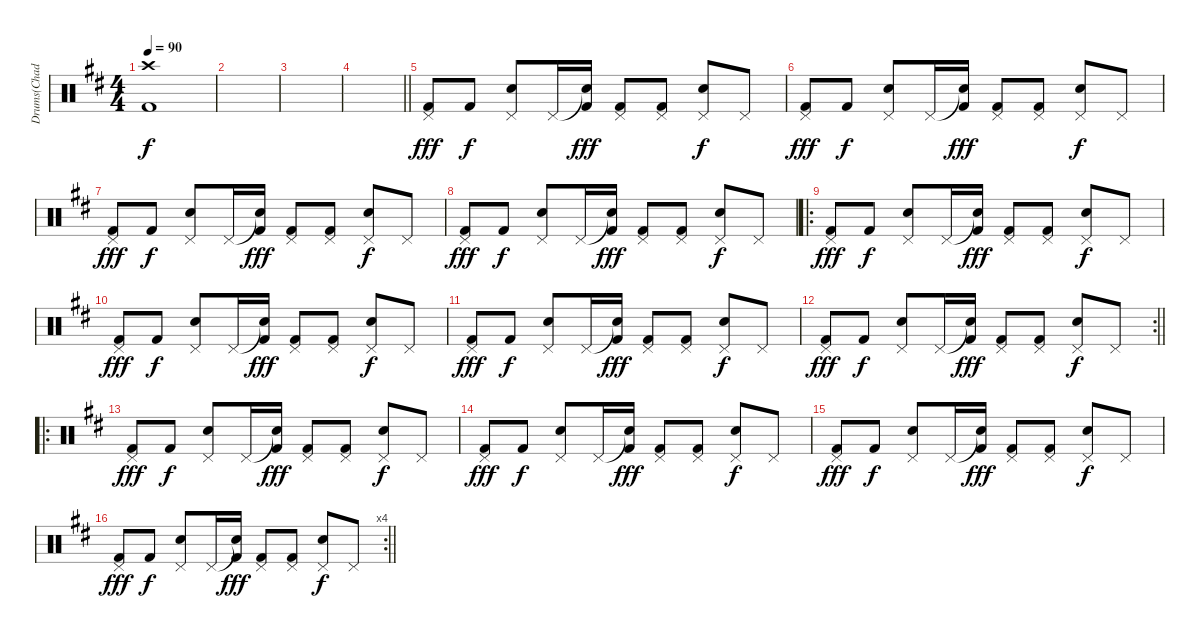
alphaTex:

\track ("Drums(Chad Smith)" "Drums(Chad") {instrument percussion}
\staff {score}
\articulation defaults
\ts (4 4)
\tempo 90
\clef neutral
\ks d
("Kick (hit) 2" "Crash high (hit)").1{dy f} |
|
|
\barLineRight lightlight
|
("Pedal Hi-Hat (hit)" "Kick (hit) 2").8{dy fff} "Kick (hit) 2".8{dy f} ("Pedal Hi-Hat (hit)" "Snare (hit) 2").8 "Pedal Hi-Hat (hit)".16 ("Snare (hit)"{t} "Kick (hit) 2").16{dy fff} ("Pedal Hi-Hat (hit)" "Kick (hit) 2").8 ("Pedal Hi-Hat (hit)" "Kick (hit) 2").8 ("Pedal Hi-Hat (hit)" "Snare (hit) 2").8{dy f} "Pedal Hi-Hat (hit)".8 |
("Pedal Hi-Hat (hit)" "Kick (hit) 2").8{dy fff} "Kick (hit) 2".8{dy f} ("Pedal Hi-Hat (hit)" "Snare (hit) 2").8 "Pedal Hi-Hat (hit)".16 ("Snare (hit)"{t} "Kick (hit) 2").16{dy fff} ("Pedal Hi-Hat (hit)" "Kick (hit) 2").8 ("Pedal Hi-Hat (hit)" "Kick (hit) 2").8 ("Pedal Hi-Hat (hit)" "Snare (hit) 2").8{dy f} "Pedal Hi-Hat (hit)".8 |
("Pedal Hi-Hat (hit)" "Kick (hit) 2").8{dy fff} "Kick (hit) 2".8{dy f} ("Pedal Hi-Hat (hit)" "Snare (hit) 2").8 "Pedal Hi-Hat (hit)".16 ("Snare (hit)"{t} "Kick (hit) 2").16{dy fff} ("Pedal Hi-Hat (hit)" "Kick (hit) 2").8 ("Pedal Hi-Hat (hit)" "Kick (hit) 2").8 ("Pedal Hi-Hat (hit)" "Snare (hit) 2").8{dy f} "Pedal Hi-Hat (hit)".8 |
("Pedal Hi-Hat (hit)" "Kick (hit) 2").8{dy fff} "Kick (hit) 2".8{dy f} ("Pedal Hi-Hat (hit)" "Snare (hit) 2").8 "Pedal Hi-Hat (hit)".16 ("Snare (hit)"{t} "Kick (hit) 2").16{dy fff} ("Pedal Hi-Hat (hit)" "Kick (hit) 2").8 ("Pedal Hi-Hat (hit)" "Kick (hit) 2").8 ("Pedal Hi-Hat (hit)" "Snare (hit) 2").8{dy f} "Pedal Hi-Hat (hit)".8 |
\ro
("Pedal Hi-Hat (hit)" "Kick (hit) 2").8{dy fff} "Kick (hit) 2".8{dy f} ("Pedal Hi-Hat (hit)" "Snare (hit) 2").8 "Pedal Hi-Hat (hit)".16 ("Snare (hit)"{t} "Kick (hit) 2").16{dy fff} ("Pedal Hi-Hat (hit)" "Kick (hit) 2").8 ("Pedal Hi-Hat (hit)" "Kick (hit) 2").8 ("Pedal Hi-Hat (hit)" "Snare (hit) 2").8{dy f} "Pedal Hi-Hat (hit)".8 |
("Pedal Hi-Hat (hit)" "Kick (hit) 2").8{dy fff} "Kick (hit) 2".8{dy f} ("Pedal Hi-Hat (hit)" "Snare (hit) 2").8 "Pedal Hi-Hat (hit)".16 ("Snare (hit)"{t} "Kick (hit) 2").16{dy fff} ("Pedal Hi-Hat (hit)" "Kick (hit) 2").8 ("Pedal Hi-Hat (hit)" "Kick (hit) 2").8 ("Pedal Hi-Hat (hit)" "Snare (hit) 2").8{dy f} "Pedal Hi-Hat (hit)".8 |
("Pedal Hi-Hat (hit)" "Kick (hit) 2").8{dy fff} "Kick (hit) 2".8{dy f} ("Pedal Hi-Hat (hit)" "Snare (hit) 2").8 "Pedal Hi-Hat (hit)".16 ("Snare (hit)"{t} "Kick (hit) 2").16{dy fff} ("Pedal Hi-Hat (hit)" "Kick (hit) 2").8 ("Pedal Hi-Hat (hit)" "Kick (hit) 2").8 ("Pedal Hi-Hat (hit)" "Snare (hit) 2").8{dy f} "Pedal Hi-Hat (hit)".8 |
\rc 2
\barLineRight lightlight
("Pedal Hi-Hat (hit)" "Kick (hit) 2").8{dy fff} "Kick (hit) 2".8{dy f} ("Pedal Hi-Hat (hit)" "Snare (hit) 2").8 "Pedal Hi-Hat (hit)".16 ("Snare (hit)"{t} "Kick (hit) 2").16{dy fff} ("Pedal Hi-Hat (hit)" "Kick (hit) 2").8 ("Pedal Hi-Hat (hit)" "Kick (hit) 2").8 ("Pedal Hi-Hat (hit)" "Snare (hit) 2").8{dy f} "Pedal Hi-Hat (hit)".8 |
\ro
("Pedal Hi-Hat (hit)" "Kick (hit) 2").8{dy fff} "Kick (hit) 2".8{dy f} ("Pedal Hi-Hat (hit)" "Snare (hit) 2").8 "Pedal Hi-Hat (hit)".16 ("Snare (hit)"{t} "Kick (hit) 2").16{dy fff} ("Pedal Hi-Hat (hit)" "Kick (hit) 2").8 ("Pedal Hi-Hat (hit)" "Kick (hit) 2").8 ("Pedal Hi-Hat (hit)" "Snare (hit) 2").8{dy f} "Pedal Hi-Hat (hit)".8 |
("Pedal Hi-Hat (hit)" "Kick (hit) 2").8{dy fff} "Kick (hit) 2".8{dy f} ("Pedal Hi-Hat (hit)" "Snare (hit) 2").8 "Pedal Hi-Hat (hit)".16 ("Snare (hit)"{t} "Kick (hit) 2").16{dy fff} ("Pedal Hi-Hat (hit)" "Kick (hit) 2").8 ("Pedal Hi-Hat (hit)" "Kick (hit) 2").8 ("Pedal Hi-Hat (hit)" "Snare (hit) 2").8{dy f} "Pedal Hi-Hat (hit)".8 |
("Pedal Hi-Hat (hit)" "Kick (hit) 2").8{dy fff} "Kick (hit) 2".8{dy f} ("Pedal Hi-Hat (hit)" "Snare (hit) 2").8 "Pedal Hi-Hat (hit)".16 ("Snare (hit)"{t} "Kick (hit) 2").16{dy fff} ("Pedal Hi-Hat (hit)" "Kick (hit) 2").8 ("Pedal Hi-Hat (hit)" "Kick (hit) 2").8 ("Pedal Hi-Hat (hit)" "Snare (hit) 2").8{dy f} "Pedal Hi-Hat (hit)".8 |
\rc 4
\barLineRight lightlight
("Pedal Hi-Hat (hit)" "Kick (hit) 2").8{dy fff} "Kick (hit) 2".8{dy f} ("Pedal Hi-Hat (hit)" "Snare (hit) 2").8 "Pedal Hi-Hat (hit)".16 ("Snare (hit)"{t} "Kick (hit) 2").16{dy fff} ("Pedal Hi-Hat (hit)" "Kick (hit) 2").8 ("Pedal Hi-Hat (hit)" "Kick (hit) 2").8 ("Pedal Hi-Hat (hit)" "Snare (hit) 2").8{dy f} "Pedal Hi-Hat (hit)".8
